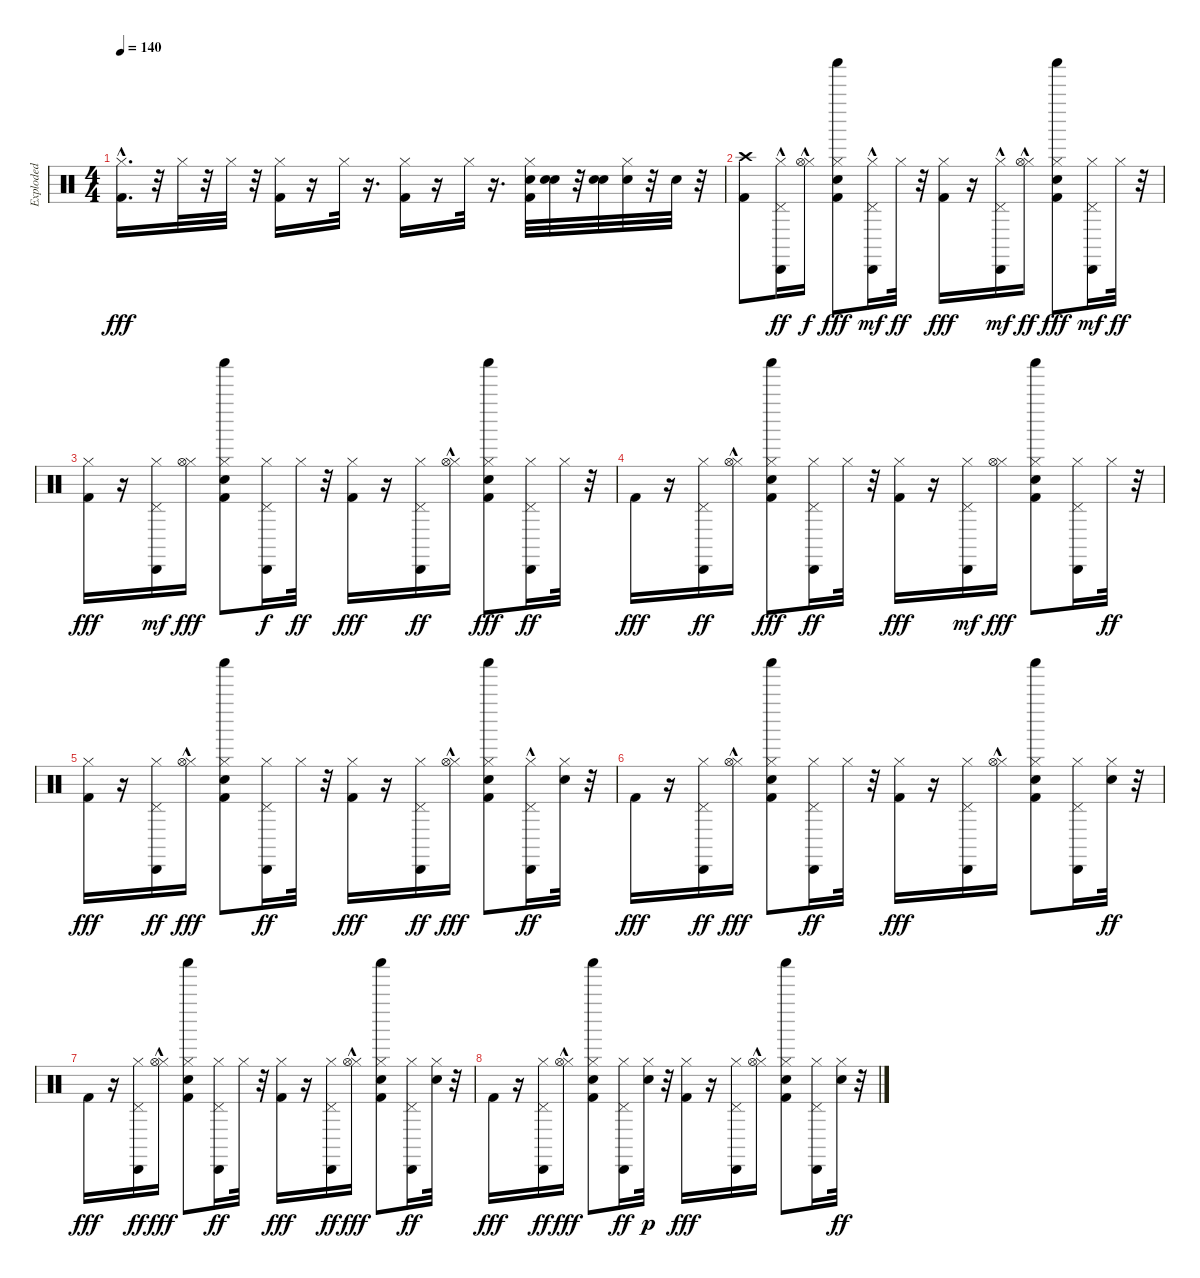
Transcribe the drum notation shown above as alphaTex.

\track ("Exploded" "Exploded") {instrument percussion}
\staff {score}
\articulation defaults
\ts (4 4)
\tempo 140
\clef neutral
\ks c
("Hi-Hat (closed)" "Kick (hit) 2"{hac}).16{d dy fff} r.32 "Hi-Hat (closed)".32 r.32 "Hi-Hat (closed)".32 r.32 ("Hi-Hat (closed)" "Kick (hit) 2").16 r.16 "Hi-Hat (closed)".32 r.16{d} ("Hi-Hat (closed)" "Kick (hit) 2").16 r.16 "Hi-Hat (closed)".32 r.16{d} ("Hand Clap (hit)" "Hi-Hat (closed)" "Kick (hit) 2").32 ("Hand Clap (hit)" "Hand Clap (hit)").32 r.32 ("Hand Clap (hit)" "Hand Clap (hit)").32 ("Hi-Hat (closed)" "Hand Clap (hit)").32 r.32 "Hand Clap (hit)".32 r.32 |
("Crash high (hit)" "Kick (hit) 2").8 ("Cabasa (hit)" "Hi-Hat (closed)" "Pedal Hi-Hat (hit)"{hac}).16{dy ff} ("Hi-Hat (closed)" "Hi-Hat (open)"{hac}).16{dy f} ("Hand Clap (hit)" "Shaker (hit)" "Hi-Hat (closed)" "Kick (hit) 2").8{dy fff} ("Cabasa (hit)"{hac} "Hi-Hat (closed)" "Pedal Hi-Hat (hit)"{hac}).16{dy mf} "Hi-Hat (closed)".32{dy ff} r.32 ("Hi-Hat (closed)" "Kick (hit) 2").16{dy fff} r.16 ("Cabasa (hit)" "Hi-Hat (closed)" "Pedal Hi-Hat (hit)"{hac}).16{dy mf} ("Hi-Hat (closed)" "Hi-Hat (open)"{hac}).16{dy ff} ("Hand Clap (hit)" "Shaker (hit)" "Hi-Hat (closed)" "Kick (hit) 2").8{dy fff} ("Cabasa (hit)" "Hi-Hat (closed)" "Pedal Hi-Hat (hit)").16{dy mf} "Hi-Hat (closed)".32{dy ff} r.32 |
("Hi-Hat (closed)" "Kick (hit) 2").16{dy fff} r.16 ("Cabasa (hit)" "Hi-Hat (closed)" "Pedal Hi-Hat (hit)").16{dy mf} ("Hi-Hat (closed)" "Hi-Hat (open)").16{dy fff} ("Hand Clap (hit)" "Shaker (hit)" "Hi-Hat (closed)" "Kick (hit) 2").8 ("Cabasa (hit)" "Hi-Hat (closed)" "Pedal Hi-Hat (hit)").16{dy f} "Hi-Hat (closed)".32{dy ff} r.32 ("Hi-Hat (closed)" "Kick (hit) 2").16{dy fff} r.16 ("Cabasa (hit)" "Hi-Hat (closed)" "Pedal Hi-Hat (hit)").16{dy ff} ("Hi-Hat (closed)" "Hi-Hat (open)"{hac}).16 ("Hand Clap (hit)" "Shaker (hit)" "Hi-Hat (closed)" "Kick (hit) 2").8{dy fff} ("Cabasa (hit)" "Hi-Hat (closed)" "Pedal Hi-Hat (hit)").16{dy ff} "Hi-Hat (closed)".32 r.32 |
"Kick (hit) 2".16{dy fff} r.16 ("Cabasa (hit)" "Hi-Hat (closed)" "Pedal Hi-Hat (hit)").16{dy ff} ("Hi-Hat (closed)" "Hi-Hat (open)"{hac}).16 ("Hand Clap (hit)" "Shaker (hit)" "Hi-Hat (closed)" "Kick (hit) 2").8{dy fff} ("Cabasa (hit)" "Hi-Hat (closed)" "Pedal Hi-Hat (hit)").16{dy ff} "Hi-Hat (closed)".32 r.32 ("Hi-Hat (closed)" "Kick (hit) 2").16{dy fff} r.16 ("Cabasa (hit)" "Hi-Hat (closed)" "Pedal Hi-Hat (hit)").16{dy mf} ("Hi-Hat (closed)" "Hi-Hat (open)").16{dy fff} ("Hand Clap (hit)" "Shaker (hit)" "Hi-Hat (closed)" "Kick (hit) 2").8 ("Cabasa (hit)" "Hi-Hat (closed)" "Pedal Hi-Hat (hit)").16 "Hi-Hat (closed)".32{dy ff} r.32 |
("Hi-Hat (closed)" "Kick (hit) 2").16{dy fff} r.16 ("Cabasa (hit)" "Hi-Hat (closed)" "Pedal Hi-Hat (hit)").16{dy ff} ("Hi-Hat (closed)" "Hi-Hat (open)"{hac}).16{dy fff} ("Hand Clap (hit)" "Shaker (hit)" "Hi-Hat (closed)" "Kick (hit) 2").8 ("Cabasa (hit)" "Hi-Hat (closed)" "Pedal Hi-Hat (hit)").16{dy ff} "Hi-Hat (closed)".32 r.32 ("Hi-Hat (closed)" "Kick (hit) 2").16{dy fff} r.16 ("Cabasa (hit)" "Hi-Hat (closed)" "Pedal Hi-Hat (hit)").16{dy ff} ("Hi-Hat (closed)" "Hi-Hat (open)"{hac}).16{dy fff} ("Hand Clap (hit)" "Shaker (hit)" "Hi-Hat (closed)" "Kick (hit) 2").8 ("Cabasa (hit)"{hac} "Hi-Hat (closed)" "Pedal Hi-Hat (hit)").16{dy ff} ("Snare (hit) 2" "Hi-Hat (closed)").32 r.32 |
"Kick (hit) 2".16{dy fff} r.16 ("Cabasa (hit)" "Hi-Hat (closed)" "Pedal Hi-Hat (hit)").16{dy ff} ("Hi-Hat (closed)" "Hi-Hat (open)"{hac}).16{dy fff} ("Hand Clap (hit)" "Shaker (hit)" "Hi-Hat (closed)" "Kick (hit) 2").8 ("Cabasa (hit)" "Hi-Hat (closed)" "Pedal Hi-Hat (hit)").16{dy ff} "Hi-Hat (closed)".32 r.32 ("Hi-Hat (closed)" "Kick (hit) 2").16{dy fff} r.16 ("Cabasa (hit)" "Hi-Hat (closed)" "Pedal Hi-Hat (hit)").16 ("Hi-Hat (closed)" "Hi-Hat (open)"{hac}).16 ("Hand Clap (hit)" "Shaker (hit)" "Hi-Hat (closed)" "Kick (hit) 2").8 ("Cabasa (hit)" "Hi-Hat (closed)" "Pedal Hi-Hat (hit)").16 ("Snare (hit) 2" "Hi-Hat (closed)").32{dy ff} r.32 |
"Kick (hit) 2".16{dy fff} r.16 ("Cabasa (hit)" "Hi-Hat (closed)" "Pedal Hi-Hat (hit)").16{dy ff} ("Hi-Hat (closed)" "Hi-Hat (open)"{hac}).16{dy fff} ("Hand Clap (hit)" "Shaker (hit)" "Hi-Hat (closed)" "Kick (hit) 2").8 ("Cabasa (hit)" "Hi-Hat (closed)" "Pedal Hi-Hat (hit)").16{dy ff} "Hi-Hat (closed)".32 r.32 ("Hi-Hat (closed)" "Kick (hit) 2").16{dy fff} r.16 ("Cabasa (hit)" "Hi-Hat (closed)" "Pedal Hi-Hat (hit)").16{dy ff} ("Hi-Hat (closed)" "Hi-Hat (open)"{hac}).16{dy fff} ("Hand Clap (hit)" "Shaker (hit)" "Hi-Hat (closed)" "Kick (hit) 2").8 ("Cabasa (hit)" "Hi-Hat (closed)" "Pedal Hi-Hat (hit)").16{dy ff} ("Snare (hit) 2" "Hi-Hat (closed)").32 r.32 |
"Kick (hit) 2".16{dy fff} r.16 ("Cabasa (hit)" "Hi-Hat (closed)" "Pedal Hi-Hat (hit)").16{dy ff} ("Hi-Hat (closed)" "Hi-Hat (open)"{hac}).16{dy fff} ("Hand Clap (hit)" "Shaker (hit)" "Hi-Hat (closed)" "Kick (hit) 2").8 ("Cabasa (hit)" "Hi-Hat (closed)" "Pedal Hi-Hat (hit)").16{dy ff} ("Hi-Hat (closed)" "Snare (hit) 2").32{dy p} r.32 ("Hi-Hat (closed)" "Kick (hit) 2").16{dy fff} r.16 ("Cabasa (hit)" "Hi-Hat (closed)" "Pedal Hi-Hat (hit)").16 ("Hi-Hat (closed)" "Hi-Hat (open)"{hac}).16 ("Hand Clap (hit)" "Shaker (hit)" "Hi-Hat (closed)" "Kick (hit) 2").8 ("Cabasa (hit)" "Hi-Hat (closed)" "Pedal Hi-Hat (hit)").16 ("Snare (hit) 2" "Hi-Hat (closed)").32{dy ff} r.32
